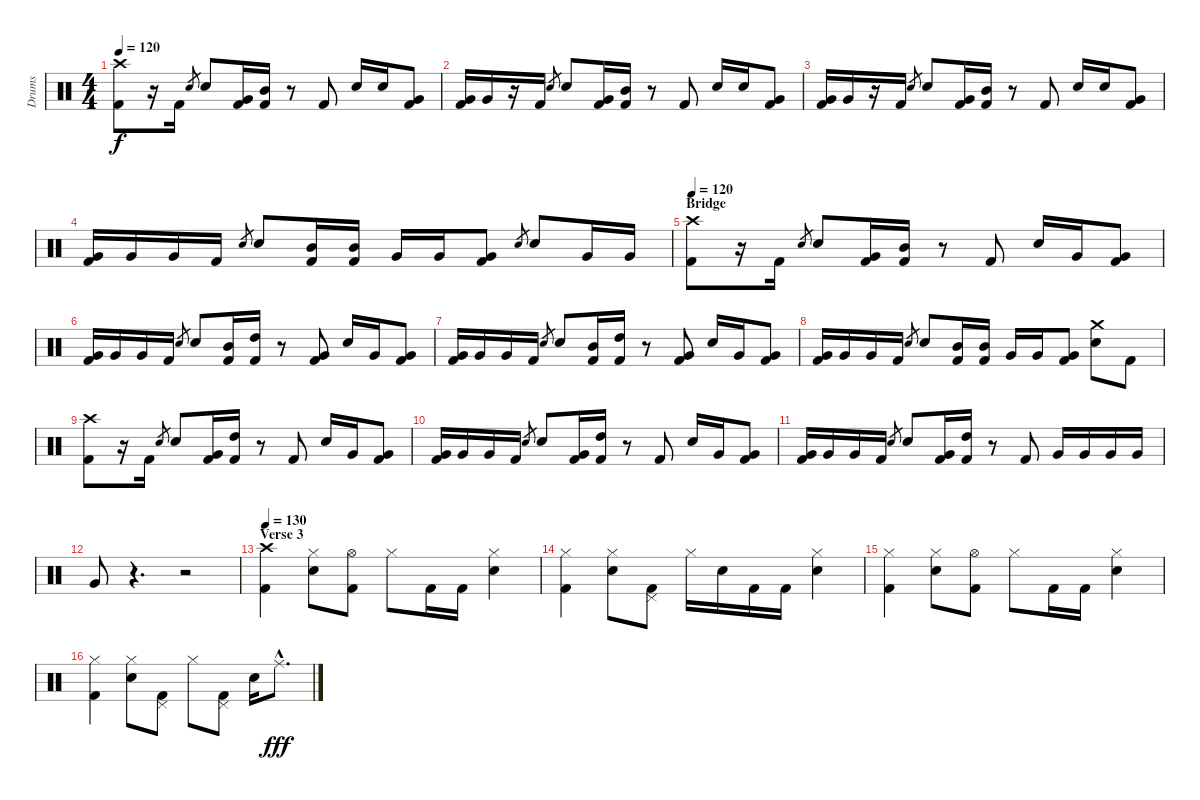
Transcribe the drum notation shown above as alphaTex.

\track ("Drums" "Drums") {instrument percussion}
\staff {score}
\articulation defaults
\ts (4 4)
\tempo 120
\clef neutral
\ks c
("Crash high (hit)" "Kick (hit) 2").8{dy f} r.16 "Kick (hit) 2".16 "Electric Snare (hit)".8{gr} "Electric Snare (hit)".8 ("Very Low Tom (hit)" "Kick (hit) 2").16 ("Mid Tom (hit)" "Kick (hit) 2").16 r.8 "Kick (hit) 2".8 "Electric Snare (hit)".16 "Electric Snare (hit)".16 ("Very Low Tom (hit)" "Kick (hit) 2").8 |
("Very Low Tom (hit)" "Kick (hit) 2").16 "Very Low Tom (hit)".16 r.16 "Kick (hit) 2".16 "Electric Snare (hit)".8{gr} "Electric Snare (hit)".8 ("Very Low Tom (hit)" "Kick (hit) 2").16 ("Mid Tom (hit)" "Kick (hit) 2").16 r.8 "Kick (hit) 2".8 "Electric Snare (hit)".16 "Electric Snare (hit)".16 ("Very Low Tom (hit)" "Kick (hit) 2").8 |
("Very Low Tom (hit)" "Kick (hit) 2").16 "Very Low Tom (hit)".16 r.16 "Kick (hit) 2".16 "Electric Snare (hit)".8{gr} "Electric Snare (hit)".8 ("Very Low Tom (hit)" "Kick (hit) 2").16 ("Mid Tom (hit)" "Kick (hit) 2").16 r.8 "Kick (hit) 2".8 "Electric Snare (hit)".16 "Electric Snare (hit)".16 ("Very Low Tom (hit)" "Kick (hit) 2").8 |
("Very Low Tom (hit)" "Kick (hit) 2").16 "Very Low Tom (hit)".16 "Very Low Tom (hit)".16 "Kick (hit) 2".16 "Electric Snare (hit)".8{gr} "Electric Snare (hit)".8 ("Mid Tom (hit)" "Kick (hit) 2").16 ("Mid Tom (hit)" "Kick (hit) 2").16 "Very Low Tom (hit)".16 "Very Low Tom (hit)".16 ("Very Low Tom (hit)" "Kick (hit) 2").8 "Electric Snare (hit)".8{gr} "Electric Snare (hit)".8 "Very Low Tom (hit)".16 "Very Low Tom (hit)".16 |
\section ("" "Bridge ")
\tempo 120
("Crash high (hit)" "Kick (hit) 2").8 r.16 "Kick (hit) 2".16 "Electric Snare (hit)".8{gr} "Electric Snare (hit)".8 ("Very Low Tom (hit)" "Kick (hit) 2").16 ("Mid Tom (hit)" "Kick (hit) 2").16 r.8 "Kick (hit) 2".8 "Electric Snare (hit)".16 "Very Low Tom (hit)".16 ("Very Low Tom (hit)" "Kick (hit) 2").8 |
("Very Low Tom (hit)" "Kick (hit) 2").16 "Very Low Tom (hit)".16 "Very Low Tom (hit)".16 "Kick (hit) 2".16 "Electric Snare (hit)".8{gr} "Electric Snare (hit)".8 ("Mid Tom (hit)" "Kick (hit) 2").16 ("High Tom (hit)" "Kick (hit) 2").16 r.8 ("Very Low Tom (hit)" "Kick (hit) 2").8 "Electric Snare (hit)".16 "Very Low Tom (hit)".16 ("Very Low Tom (hit)" "Kick (hit) 2").8 |
("Very Low Tom (hit)" "Kick (hit) 2").16 "Very Low Tom (hit)".16 "Very Low Tom (hit)".16 "Kick (hit) 2".16 "Electric Snare (hit)".8{gr} "Electric Snare (hit)".8 ("Mid Tom (hit)" "Kick (hit) 2").16 ("High Tom (hit)" "Kick (hit) 2").16 r.8 ("Very Low Tom (hit)" "Kick (hit) 2").8 "Electric Snare (hit)".16 "Very Low Tom (hit)".16 ("Very Low Tom (hit)" "Kick (hit) 2").8 |
("Very Low Tom (hit)" "Kick (hit) 2").16 "Very Low Tom (hit)".16 "Very Low Tom (hit)".16 "Kick (hit) 2".16 "Electric Snare (hit)".8{gr} "Electric Snare (hit)".8 ("Mid Tom (hit)" "Kick (hit) 2").16 ("Mid Tom (hit)" "Kick (hit) 2").16 "Very Low Tom (hit)".16 "Very Low Tom (hit)".16 ("Very Low Tom (hit)" "Kick (hit) 2").8 ("Crash medium (hit)" "Electric Snare (hit)").8 "Kick (hit) 2".8 |
("Crash high (hit)" "Kick (hit) 2").8 r.16 "Kick (hit) 2".16 "Electric Snare (hit)".8{gr} "Electric Snare (hit)".8 ("Very Low Tom (hit)" "Kick (hit) 2").16 ("High Tom (hit)" "Kick (hit) 2").16 r.8 "Kick (hit) 2".8 "Electric Snare (hit)".16 "Very Low Tom (hit)".16 ("Very Low Tom (hit)" "Kick (hit) 2").8 |
("Very Low Tom (hit)" "Kick (hit) 2").16 "Very Low Tom (hit)".16 "Very Low Tom (hit)".16 "Kick (hit) 2".16 "Electric Snare (hit)".8{gr} "Electric Snare (hit)".8 ("Very Low Tom (hit)" "Kick (hit) 2").16 ("High Tom (hit)" "Kick (hit) 2").16 r.8 "Kick (hit) 2".8 "Electric Snare (hit)".16 "Very Low Tom (hit)".16 ("Very Low Tom (hit)" "Kick (hit) 2").8 |
("Very Low Tom (hit)" "Kick (hit) 2").16 "Very Low Tom (hit)".16 "Very Low Tom (hit)".16 "Kick (hit) 2".16 "Electric Snare (hit)".8{gr} "Electric Snare (hit)".8 ("Very Low Tom (hit)" "Kick (hit) 2").16 ("High Tom (hit)" "Kick (hit) 2").16 r.8 "Kick (hit) 2".8 "Very Low Tom (hit)".16 "Very Low Tom (hit)".16 "Very Low Tom (hit)".16 "Very Low Tom (hit)".16 |
"Very Low Tom (hit)".8 r.4{d} r.2 |
\section ("" "Verse 3")
\tempo 130
("Crash high (hit)" "Kick (hit) 2").4 ("Hi-Hat (closed)" "Electric Snare (hit)").8 ("Hi-Hat (open)" "Kick (hit) 2").8 "Hi-Hat (closed)".8 "Kick (hit) 2".16 "Kick (hit) 2".16 ("Hi-Hat (closed)" "Electric Snare (hit)").4 |
("Hi-Hat (closed)" "Kick (hit) 2").4 ("Hi-Hat (closed)" "Electric Snare (hit)").8 ("Pedal Hi-Hat (hit)" "Kick (hit) 2").8 "Hi-Hat (closed)".16 "Electric Snare (hit)".16 "Kick (hit) 2".16 "Kick (hit) 2".16 ("Hi-Hat (closed)" "Electric Snare (hit)").4 |
("Hi-Hat (closed)" "Kick (hit) 2").4 ("Hi-Hat (closed)" "Electric Snare (hit)").8 ("Hi-Hat (open)" "Kick (hit) 2").8 "Hi-Hat (closed)".8 "Kick (hit) 2".16 "Kick (hit) 2".16 ("Hi-Hat (closed)" "Electric Snare (hit)").4 |
("Hi-Hat (closed)" "Kick (hit) 2").4 ("Hi-Hat (closed)" "Electric Snare (hit)").8 ("Pedal Hi-Hat (hit)" "Kick (hit) 2").8 "Hi-Hat (closed)".8 ("Pedal Hi-Hat (hit)" "Kick (hit) 2").8 "Electric Snare (hit)".16 "Ride (middle)"{hac}.8{d dy fff}
